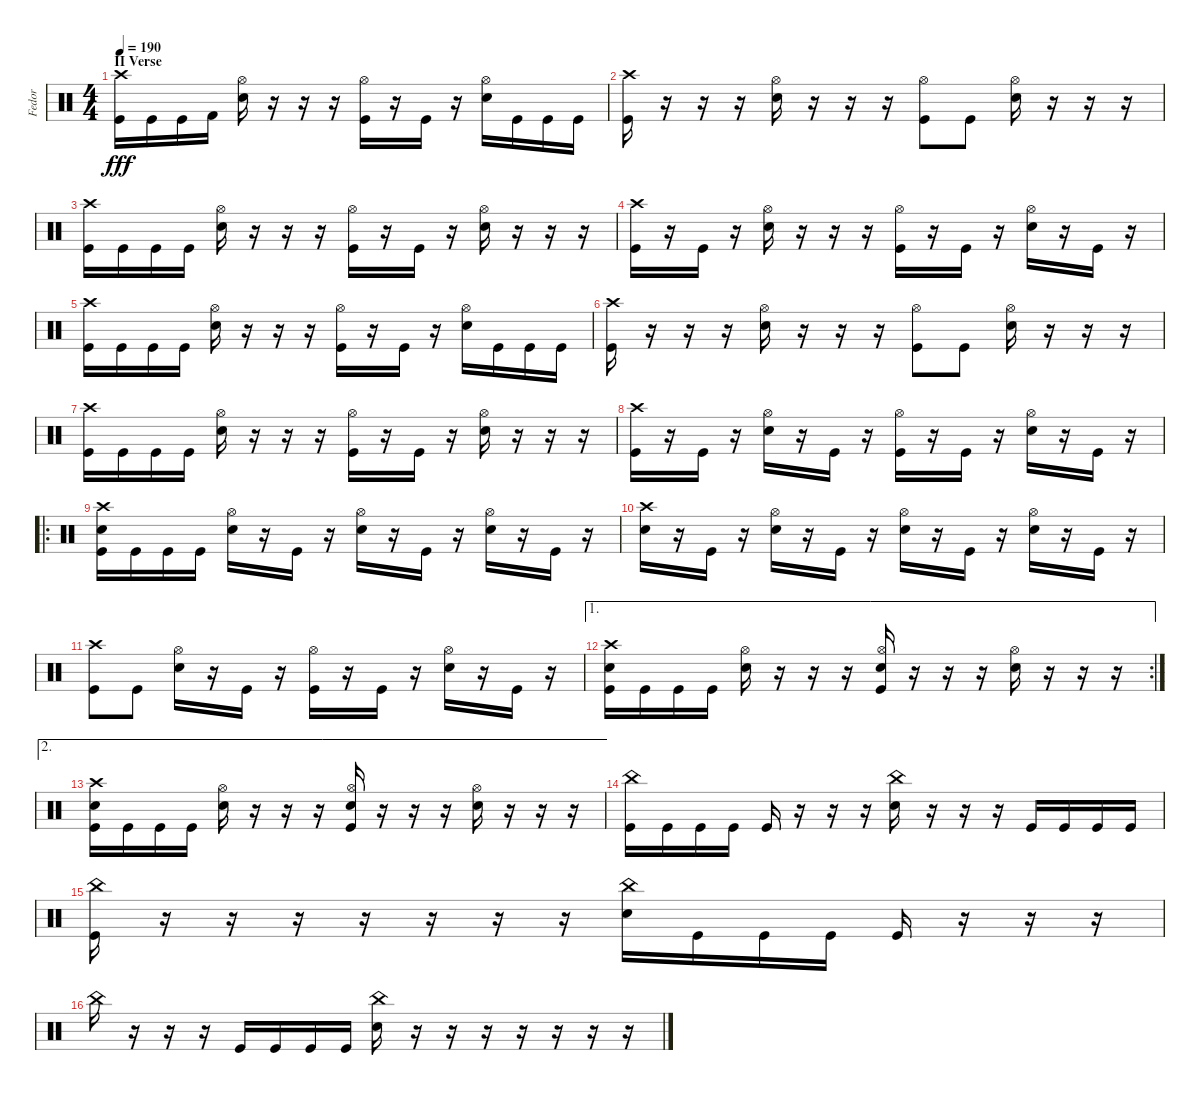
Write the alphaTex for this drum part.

\track ("Fedor" "Fedor") {instrument percussion}
\staff {score}
\articulation defaults
\ts (4 4)
\section ("" "II Verse")
\tempo 190
\clef neutral
\ks c
("Crash high (hit)" "Kick (hit)").16{dy fff} "Kick (hit)".16 "Kick (hit)".16 "Kick (hit) 2".16 ("Hi-Hat (open)" "Electric Snare (hit)").16 r.16 r.16 r.16 ("Hi-Hat (open)" "Kick (hit)").16 r.16 "Kick (hit)".16 r.16 ("Hi-Hat (open)" "Electric Snare (hit)").16 "Kick (hit)".16 "Kick (hit)".16 "Kick (hit)".16 |
("Crash high (hit)" "Kick (hit)").16 r.16 r.16 r.16 ("Hi-Hat (open)" "Electric Snare (hit)").16 r.16 r.16 r.16 ("Hi-Hat (open)" "Kick (hit)").8 "Kick (hit)".8 ("Hi-Hat (open)" "Electric Snare (hit)").16 r.16 r.16 r.16 |
("Crash high (hit)" "Kick (hit)").16 "Kick (hit)".16 "Kick (hit)".16 "Kick (hit)".16 ("Hi-Hat (open)" "Electric Snare (hit)").16 r.16 r.16 r.16 ("Hi-Hat (open)" "Kick (hit)").16 r.16 "Kick (hit)".16 r.16 ("Hi-Hat (open)" "Electric Snare (hit)").16 r.16 r.16 r.16 |
("Crash high (hit)" "Kick (hit)").16 r.16 "Kick (hit)".16 r.16 ("Hi-Hat (open)" "Electric Snare (hit)").16 r.16 r.16 r.16 ("Hi-Hat (open)" "Kick (hit)").16 r.16 "Kick (hit)".16 r.16 ("Hi-Hat (open)" "Electric Snare (hit)").16 r.16 "Kick (hit)".16 r.16 |
("Crash high (hit)" "Kick (hit)").16 "Kick (hit)".16 "Kick (hit)".16 "Kick (hit)".16 ("Hi-Hat (open)" "Electric Snare (hit)").16 r.16 r.16 r.16 ("Hi-Hat (open)" "Kick (hit)").16 r.16 "Kick (hit)".16 r.16 ("Hi-Hat (open)" "Electric Snare (hit)").16 "Kick (hit)".16 "Kick (hit)".16 "Kick (hit)".16 |
("Crash high (hit)" "Kick (hit)").16 r.16 r.16 r.16 ("Hi-Hat (open)" "Electric Snare (hit)").16 r.16 r.16 r.16 ("Hi-Hat (open)" "Kick (hit)").8 "Kick (hit)".8 ("Hi-Hat (open)" "Electric Snare (hit)").16 r.16 r.16 r.16 |
("Crash high (hit)" "Kick (hit)").16 "Kick (hit)".16 "Kick (hit)".16 "Kick (hit)".16 ("Hi-Hat (open)" "Electric Snare (hit)").16 r.16 r.16 r.16 ("Hi-Hat (open)" "Kick (hit)").16 r.16 "Kick (hit)".16 r.16 ("Hi-Hat (open)" "Electric Snare (hit)").16 r.16 r.16 r.16 |
("Crash high (hit)" "Kick (hit)").16 r.16 "Kick (hit)".16 r.16 ("Hi-Hat (open)" "Electric Snare (hit)").16 r.16 "Kick (hit)".16 r.16 ("Hi-Hat (open)" "Kick (hit)").16 r.16 "Kick (hit)".16 r.16 ("Hi-Hat (open)" "Electric Snare (hit)").16 r.16 "Kick (hit)".16 r.16 |
\ro
("Crash high (hit)" "Electric Snare (hit)" "Kick (hit)").16 "Kick (hit)".16 "Kick (hit)".16 "Kick (hit)".16 ("Hi-Hat (open)" "Electric Snare (hit)").16 r.16 "Kick (hit)".16 r.16 ("Hi-Hat (open)" "Electric Snare (hit)").16 r.16 "Kick (hit)".16 r.16 ("Hi-Hat (open)" "Electric Snare (hit)").16 r.16 "Kick (hit)".16 r.16 |
("Crash high (hit)" "Electric Snare (hit)").16 r.16 "Kick (hit)".16 r.16 ("Hi-Hat (open)" "Electric Snare (hit)").16 r.16 "Kick (hit)".16 r.16 ("Hi-Hat (open)" "Electric Snare (hit)").16 r.16 "Kick (hit)".16 r.16 ("Hi-Hat (open)" "Electric Snare (hit)").16 r.16 "Kick (hit)".16 r.16 |
("Crash high (hit)" "Kick (hit)").8 "Kick (hit)".8 ("Hi-Hat (open)" "Electric Snare (hit)").16 r.16 "Kick (hit)".16 r.16 ("Hi-Hat (open)" "Kick (hit)").16 r.16 "Kick (hit)".16 r.16 ("Hi-Hat (open)" "Electric Snare (hit)").16 r.16 "Kick (hit)".16 r.16 |
\ae 1
\rc 2
("Crash high (hit)" "Electric Snare (hit)" "Kick (hit)").16 "Kick (hit)".16 "Kick (hit)".16 "Kick (hit)".16 ("Hi-Hat (open)" "Electric Snare (hit)").16 r.16 r.16 r.16 ("Hi-Hat (open)" "Electric Snare (hit)" "Kick (hit)").16 r.16 r.16 r.16 ("Hi-Hat (open)" "Electric Snare (hit)").16 r.16 r.16 r.16 |
\ae 2
("Crash high (hit)" "Electric Snare (hit)" "Kick (hit)").16 "Kick (hit)".16 "Kick (hit)".16 "Kick (hit)".16 ("Hi-Hat (open)" "Electric Snare (hit)").16 r.16 r.16 r.16 ("Hi-Hat (open)" "Electric Snare (hit)" "Kick (hit)").16 r.16 r.16 r.16 ("Hi-Hat (open)" "Electric Snare (hit)").16 r.16 r.16 r.16 |
("China (hit)" "Kick (hit)").16 "Kick (hit)".16 "Kick (hit)".16 "Kick (hit)".16 "Kick (hit)".16 r.16 r.16 r.16 ("China (hit)" "Electric Snare (hit)").16 r.16 r.16 r.16 "Kick (hit)".16 "Kick (hit)".16 "Kick (hit)".16 "Kick (hit)".16 |
("China (hit)" "Kick (hit)").16 r.16 r.16 r.16 r.16 r.16 r.16 r.16 ("China (hit)" "Electric Snare (hit)").16 "Kick (hit)".16 "Kick (hit)".16 "Kick (hit)".16 "Kick (hit)".16 r.16 r.16 r.16 |
"China (hit)".16 r.16 r.16 r.16 "Kick (hit)".16 "Kick (hit)".16 "Kick (hit)".16 "Kick (hit)".16 ("China (hit)" "Electric Snare (hit)").16 r.16 r.16 r.16 r.16 r.16 r.16 r.16
